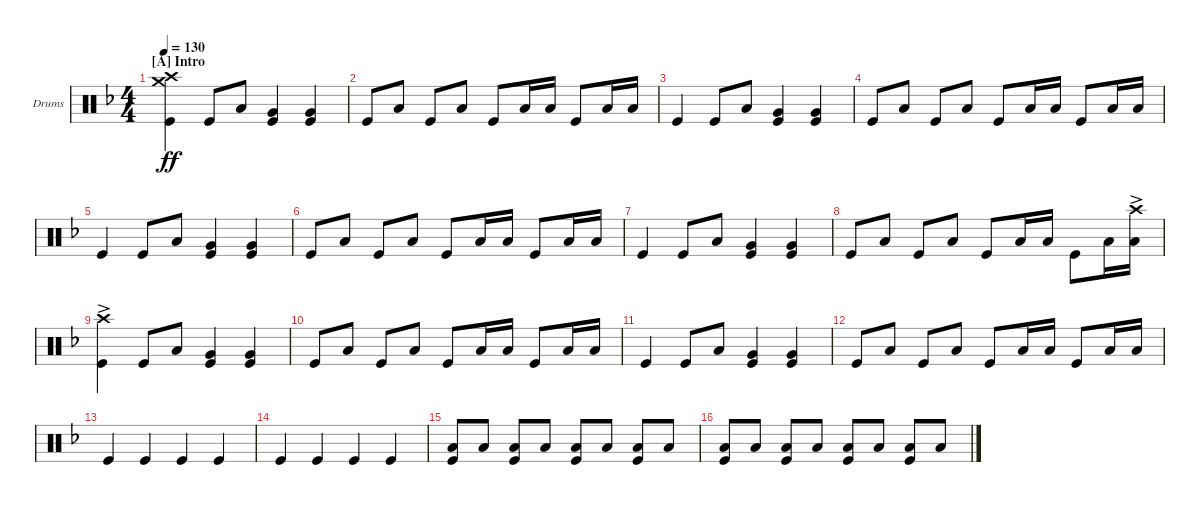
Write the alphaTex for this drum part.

\defaultSystemsLayout 4
\bracketExtendMode groupsimilarinstruments
\firstSystemTrackNameOrientation horizontal
\otherSystemsTrackNameOrientation horizontal
\track ("Drumkit" "Drums") {instrument percussion}
\staff {score}
\articulation defaults
\ts (4 4)
\section ("A" "Intro")
\tempo 130
\clef neutral
\ks f
("Kick (hit)" "Crash high (hit)" "Crash medium (hit)").4{dy ff} "Kick (hit)".8 "Low Tom (hit)".8 ("Very Low Tom (hit)" "Kick (hit)").4 ("Very Low Tom (hit)" "Kick (hit)").4 |
"Kick (hit)".8 "Low Tom (hit)".8 "Kick (hit)".8 "Low Tom (hit)".8 "Kick (hit)".8 "Low Tom (hit)".16 "Low Tom (hit)".16 "Kick (hit)".8 "Low Tom (hit)".16 "Low Tom (hit)".16 |
"Kick (hit)".4 "Kick (hit)".8 "Low Tom (hit)".8 ("Very Low Tom (hit)" "Kick (hit)").4 ("Very Low Tom (hit)" "Kick (hit)").4 |
"Kick (hit)".8 "Low Tom (hit)".8 "Kick (hit)".8 "Low Tom (hit)".8 "Kick (hit)".8 "Low Tom (hit)".16 "Low Tom (hit)".16 "Kick (hit)".8 "Low Tom (hit)".16 "Low Tom (hit)".16 |
"Kick (hit)".4 "Kick (hit)".8 "Low Tom (hit)".8 ("Very Low Tom (hit)" "Kick (hit)").4 ("Very Low Tom (hit)" "Kick (hit)").4 |
"Kick (hit)".8 "Low Tom (hit)".8 "Kick (hit)".8 "Low Tom (hit)".8 "Kick (hit)".8 "Low Tom (hit)".16 "Low Tom (hit)".16 "Kick (hit)".8 "Low Tom (hit)".16 "Low Tom (hit)".16 |
"Kick (hit)".4 "Kick (hit)".8 "Low Tom (hit)".8 ("Very Low Tom (hit)" "Kick (hit)").4 ("Very Low Tom (hit)" "Kick (hit)").4 |
"Kick (hit)".8 "Low Tom (hit)".8 "Kick (hit)".8 "Low Tom (hit)".8 "Kick (hit)".8 "Low Tom (hit)".16 "Low Tom (hit)".16 "Kick (hit)".8 "Low Tom (hit)".16 ("Low Tom (hit)"{ac} "Crash high (hit)"{ac}).16 |
("Kick (hit)" "Crash high (hit)"{ac}).4 "Kick (hit)".8 "Low Tom (hit)".8 ("Very Low Tom (hit)" "Kick (hit)").4 ("Very Low Tom (hit)" "Kick (hit)").4 |
"Kick (hit)".8 "Low Tom (hit)".8 "Kick (hit)".8 "Low Tom (hit)".8 "Kick (hit)".8 "Low Tom (hit)".16 "Low Tom (hit)".16 "Kick (hit)".8 "Low Tom (hit)".16 "Low Tom (hit)".16 |
"Kick (hit)".4 "Kick (hit)".8 "Low Tom (hit)".8 ("Very Low Tom (hit)" "Kick (hit)").4 ("Very Low Tom (hit)" "Kick (hit)").4 |
"Kick (hit)".8 "Low Tom (hit)".8 "Kick (hit)".8 "Low Tom (hit)".8 "Kick (hit)".8 "Low Tom (hit)".16 "Low Tom (hit)".16 "Kick (hit)".8 "Low Tom (hit)".16 "Low Tom (hit)".16 |
"Kick (hit)".4 "Kick (hit)".4 "Kick (hit)".4 "Kick (hit)".4 |
"Kick (hit)".4 "Kick (hit)".4 "Kick (hit)".4 "Kick (hit)".4 |
("Low Tom (hit)" "Kick (hit)").8 "Low Tom (hit)".8 ("Low Tom (hit)" "Kick (hit)").8 "Low Tom (hit)".8 ("Low Tom (hit)" "Kick (hit)").8 "Low Tom (hit)".8 ("Low Tom (hit)" "Kick (hit)").8 "Low Tom (hit)".8 |
("Low Tom (hit)" "Kick (hit)").8 "Low Tom (hit)".8 ("Low Tom (hit)" "Kick (hit)").8 "Low Tom (hit)".8 ("Low Tom (hit)" "Kick (hit)").8 "Low Tom (hit)".8 ("Low Tom (hit)" "Kick (hit)").8 "Low Tom (hit)".8
